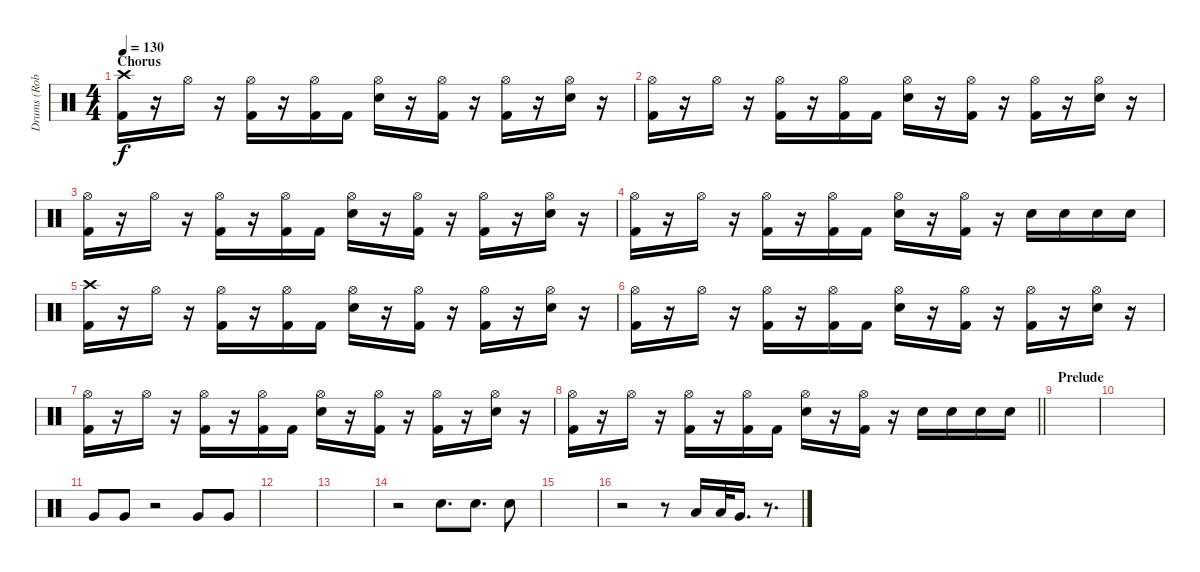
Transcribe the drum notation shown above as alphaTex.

\track ("Drums (Rob)" "Drums (Rob") {instrument percussion}
\staff {score}
\articulation defaults
\ts (4 4)
\section ("" "Chorus")
\tempo 130
\clef neutral
\ks c
("Crash high (hit)" "Kick (hit) 2").16{dy f} r.16 "Hi-Hat (open)".16 r.16 ("Hi-Hat (open)" "Kick (hit) 2").16 r.16 ("Hi-Hat (open)" "Kick (hit) 2").16 "Kick (hit) 2".16 ("Hi-Hat (open)" "Electric Snare (hit)").16 r.16 ("Hi-Hat (open)" "Kick (hit) 2").16 r.16 ("Hi-Hat (open)" "Kick (hit) 2").16 r.16 ("Hi-Hat (open)" "Electric Snare (hit)").16 r.16 |
("Hi-Hat (open)" "Kick (hit) 2").16 r.16 "Hi-Hat (open)".16 r.16 ("Hi-Hat (open)" "Kick (hit) 2").16 r.16 ("Hi-Hat (open)" "Kick (hit) 2").16 "Kick (hit) 2".16 ("Hi-Hat (open)" "Electric Snare (hit)").16 r.16 ("Hi-Hat (open)" "Kick (hit) 2").16 r.16 ("Hi-Hat (open)" "Kick (hit) 2").16 r.16 ("Hi-Hat (open)" "Electric Snare (hit)").16 r.16 |
("Hi-Hat (open)" "Kick (hit) 2").16 r.16 "Hi-Hat (open)".16 r.16 ("Hi-Hat (open)" "Kick (hit) 2").16 r.16 ("Hi-Hat (open)" "Kick (hit) 2").16 "Kick (hit) 2".16 ("Hi-Hat (open)" "Electric Snare (hit)").16 r.16 ("Hi-Hat (open)" "Kick (hit) 2").16 r.16 ("Hi-Hat (open)" "Kick (hit) 2").16 r.16 ("Hi-Hat (open)" "Electric Snare (hit)").16 r.16 |
("Hi-Hat (open)" "Kick (hit) 2").16 r.16 "Hi-Hat (open)".16 r.16 ("Hi-Hat (open)" "Kick (hit) 2").16 r.16 ("Hi-Hat (open)" "Kick (hit) 2").16 "Kick (hit) 2".16 ("Hi-Hat (open)" "Electric Snare (hit)").16 r.16 ("Hi-Hat (open)" "Kick (hit) 2").16 r.16 "Electric Snare (hit)".16 "Electric Snare (hit)".16 "Electric Snare (hit)".16 "Electric Snare (hit)".16 |
("Crash high (hit)" "Kick (hit) 2").16 r.16 "Hi-Hat (open)".16 r.16 ("Hi-Hat (open)" "Kick (hit) 2").16 r.16 ("Hi-Hat (open)" "Kick (hit) 2").16 "Kick (hit) 2".16 ("Hi-Hat (open)" "Electric Snare (hit)").16 r.16 ("Hi-Hat (open)" "Kick (hit) 2").16 r.16 ("Hi-Hat (open)" "Kick (hit) 2").16 r.16 ("Hi-Hat (open)" "Electric Snare (hit)").16 r.16 |
("Hi-Hat (open)" "Kick (hit) 2").16 r.16 "Hi-Hat (open)".16 r.16 ("Hi-Hat (open)" "Kick (hit) 2").16 r.16 ("Hi-Hat (open)" "Kick (hit) 2").16 "Kick (hit) 2".16 ("Hi-Hat (open)" "Electric Snare (hit)").16 r.16 ("Hi-Hat (open)" "Kick (hit) 2").16 r.16 ("Hi-Hat (open)" "Kick (hit) 2").16 r.16 ("Hi-Hat (open)" "Electric Snare (hit)").16 r.16 |
("Hi-Hat (open)" "Kick (hit) 2").16 r.16 "Hi-Hat (open)".16 r.16 ("Hi-Hat (open)" "Kick (hit) 2").16 r.16 ("Hi-Hat (open)" "Kick (hit) 2").16 "Kick (hit) 2".16 ("Hi-Hat (open)" "Electric Snare (hit)").16 r.16 ("Hi-Hat (open)" "Kick (hit) 2").16 r.16 ("Hi-Hat (open)" "Kick (hit) 2").16 r.16 ("Hi-Hat (open)" "Electric Snare (hit)").16 r.16 |
\barLineRight lightlight
("Hi-Hat (open)" "Kick (hit) 2").16 r.16 "Hi-Hat (open)".16 r.16 ("Hi-Hat (open)" "Kick (hit) 2").16 r.16 ("Hi-Hat (open)" "Kick (hit) 2").16 "Kick (hit) 2".16 ("Hi-Hat (open)" "Electric Snare (hit)").16 r.16 ("Hi-Hat (open)" "Kick (hit) 2").16 r.16 "Electric Snare (hit)".16 "Electric Snare (hit)".16 "Electric Snare (hit)".16 "Electric Snare (hit)".16 |
\section ("" "Prelude")
|
|
"Very Low Tom (hit)".8 "Very Low Tom (hit)".8 r.2 "Very Low Tom (hit)".8 "Very Low Tom (hit)".8 |
|
|
r.2 "Electric Snare (hit)".8{d} "Electric Snare (hit)".8{d} "Electric Snare (hit)".8 |
|
r.2 r.8 "Low Tom (hit)".16 "Low Tom (hit)".32 "Very Low Tom (hit)".16{d} r.8{d}
